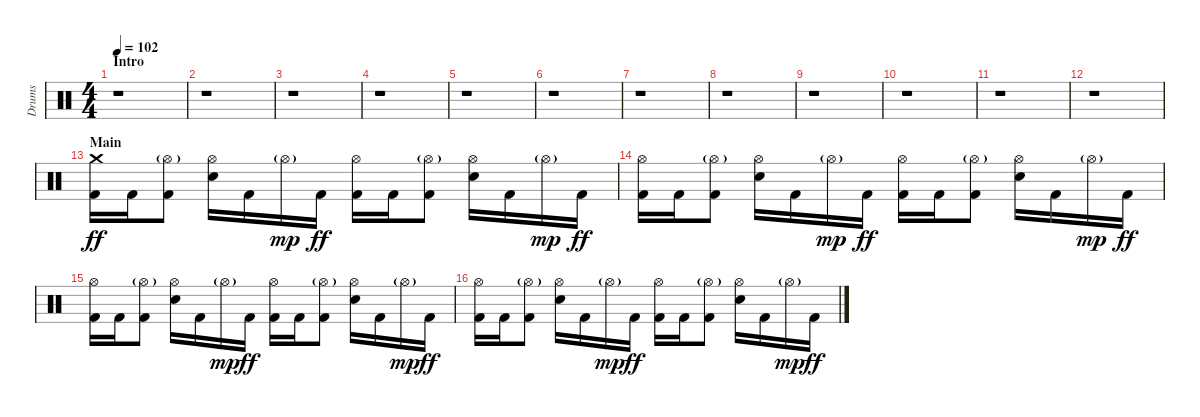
\track ("Drums" "Drums") {instrument percussion}
\staff {score}
\articulation defaults
\ts (4 4)
\section ("" "Intro")
\tempo 102
\clef neutral
\ks c
r.1{dy ff} |
r.1 |
r.1 |
r.1 |
r.1 |
r.1 |
r.1 |
r.1 |
r.1 |
r.1 |
r.1 |
r.1 |
\section ("" "Main")
("Crash medium (hit)" "Kick (hit) 2").16 "Kick (hit) 2".16 ("Hi-Hat (open)"{g} "Kick (hit) 2").8 ("Hi-Hat (open)" "Electric Snare (hit)").16 "Kick (hit) 2".16 "Hi-Hat (open)"{g}.16{dy mp} "Kick (hit) 2".16{dy ff} ("Hi-Hat (open)" "Kick (hit) 2").16 "Kick (hit) 2".16 ("Hi-Hat (open)"{g} "Kick (hit) 2").8 ("Hi-Hat (open)" "Electric Snare (hit)").16 "Kick (hit) 2".16 "Hi-Hat (open)"{g}.16{dy mp} "Kick (hit) 2".16{dy ff} |
("Hi-Hat (open)" "Kick (hit) 2").16 "Kick (hit) 2".16 ("Hi-Hat (open)"{g} "Kick (hit) 2").8 ("Hi-Hat (open)" "Electric Snare (hit)").16 "Kick (hit) 2".16 "Hi-Hat (open)"{g}.16{dy mp} "Kick (hit) 2".16{dy ff} ("Hi-Hat (open)" "Kick (hit) 2").16 "Kick (hit) 2".16 ("Hi-Hat (open)"{g} "Kick (hit) 2").8 ("Hi-Hat (open)" "Electric Snare (hit)").16 "Kick (hit) 2".16 "Hi-Hat (open)"{g}.16{dy mp} "Kick (hit) 2".16{dy ff} |
("Hi-Hat (open)" "Kick (hit) 2").16 "Kick (hit) 2".16 ("Hi-Hat (open)"{g} "Kick (hit) 2").8 ("Hi-Hat (open)" "Electric Snare (hit)").16 "Kick (hit) 2".16 "Hi-Hat (open)"{g}.16{dy mp} "Kick (hit) 2".16{dy ff} ("Hi-Hat (open)" "Kick (hit) 2").16 "Kick (hit) 2".16 ("Hi-Hat (open)"{g} "Kick (hit) 2").8 ("Hi-Hat (open)" "Electric Snare (hit)").16 "Kick (hit) 2".16 "Hi-Hat (open)"{g}.16{dy mp} "Kick (hit) 2".16{dy ff} |
("Hi-Hat (open)" "Kick (hit) 2").16 "Kick (hit) 2".16 ("Hi-Hat (open)"{g} "Kick (hit) 2").8 ("Hi-Hat (open)" "Electric Snare (hit)").16 "Kick (hit) 2".16 "Hi-Hat (open)"{g}.16{dy mp} "Kick (hit) 2".16{dy ff} ("Hi-Hat (open)" "Kick (hit) 2").16 "Kick (hit) 2".16 ("Hi-Hat (open)"{g} "Kick (hit) 2").8 ("Hi-Hat (open)" "Electric Snare (hit)").16 "Kick (hit) 2".16 "Hi-Hat (open)"{g}.16{dy mp} "Kick (hit) 2".16{dy ff}
